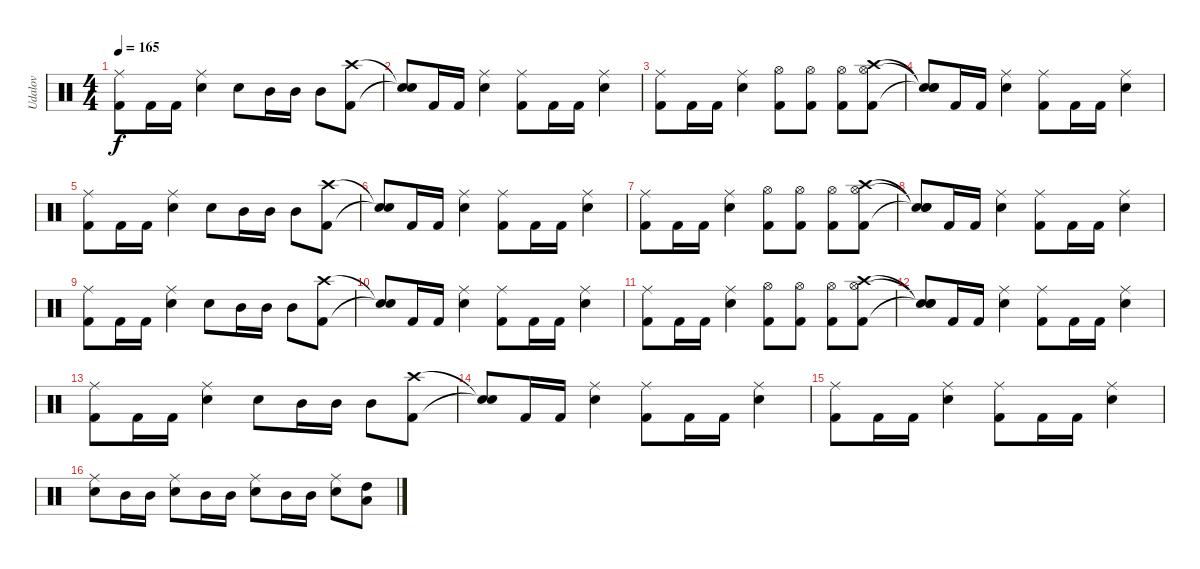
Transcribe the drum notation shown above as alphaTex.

\track ("Udalov" "Udalov") {instrument percussion}
\staff {score}
\articulation defaults
\ts (4 4)
\tempo 165
\clef neutral
\ks c
("Kick (hit) 2" "Ride (middle)").8{dy f} "Kick (hit) 2".16 "Kick (hit) 2".16 ("Snare (hit) 2" "Ride (middle)").4 "Snare (hit) 2".8 "Mid Tom (hit)".16 "Mid Tom (hit)".16 "Mid Tom (hit)".8 ("Kick (hit) 2" "Crash high (hit)").8 |
("Snare (hit)"{t} "Snare (hit)"{t}).8 "Kick (hit) 2".16 "Kick (hit) 2".16 ("Snare (hit) 2" "Ride (middle)").4 ("Kick (hit) 2" "Ride (middle)").8 "Kick (hit) 2".16 "Kick (hit) 2".16 ("Snare (hit) 2" "Ride (middle)").4 |
("Kick (hit) 2" "Ride (middle)").8 "Kick (hit) 2".16 "Kick (hit) 2".16 ("Snare (hit) 2" "Ride (middle)").4 ("Kick (hit) 2" "Hi-Hat (open)").8 ("Kick (hit) 2" "Hi-Hat (open)").8 ("Kick (hit) 2" "Hi-Hat (open)").8 ("Kick (hit) 2" "Hi-Hat (open)" "Crash high (hit)").8 |
("Snare (hit)"{t} "Snare (hit)"{t} "Snare (hit)"{t}).8 "Kick (hit) 2".16 "Kick (hit) 2".16 ("Snare (hit) 2" "Ride (middle)").4 ("Kick (hit) 2" "Ride (middle)").8 "Kick (hit) 2".16 "Kick (hit) 2".16 ("Snare (hit) 2" "Ride (middle)").4 |
("Kick (hit) 2" "Ride (middle)").8 "Kick (hit) 2".16 "Kick (hit) 2".16 ("Snare (hit) 2" "Ride (middle)").4 "Snare (hit) 2".8 "Mid Tom (hit)".16 "Mid Tom (hit)".16 "Mid Tom (hit)".8 ("Kick (hit) 2" "Crash high (hit)").8 |
("Snare (hit)"{t} "Snare (hit)"{t}).8 "Kick (hit) 2".16 "Kick (hit) 2".16 ("Snare (hit) 2" "Ride (middle)").4 ("Kick (hit) 2" "Ride (middle)").8 "Kick (hit) 2".16 "Kick (hit) 2".16 ("Snare (hit) 2" "Ride (middle)").4 |
("Kick (hit) 2" "Ride (middle)").8 "Kick (hit) 2".16 "Kick (hit) 2".16 ("Snare (hit) 2" "Ride (middle)").4 ("Kick (hit) 2" "Hi-Hat (open)").8 ("Kick (hit) 2" "Hi-Hat (open)").8 ("Kick (hit) 2" "Hi-Hat (open)").8 ("Kick (hit) 2" "Hi-Hat (open)" "Crash high (hit)").8 |
("Snare (hit)"{t} "Snare (hit)"{t} "Snare (hit)"{t}).8 "Kick (hit) 2".16 "Kick (hit) 2".16 ("Snare (hit) 2" "Ride (middle)").4 ("Kick (hit) 2" "Ride (middle)").8 "Kick (hit) 2".16 "Kick (hit) 2".16 ("Snare (hit) 2" "Ride (middle)").4 |
("Kick (hit) 2" "Ride (middle)").8 "Kick (hit) 2".16 "Kick (hit) 2".16 ("Snare (hit) 2" "Ride (middle)").4 "Snare (hit) 2".8 "Mid Tom (hit)".16 "Mid Tom (hit)".16 "Mid Tom (hit)".8 ("Kick (hit) 2" "Crash high (hit)").8 |
("Snare (hit)"{t} "Snare (hit)"{t}).8 "Kick (hit) 2".16 "Kick (hit) 2".16 ("Snare (hit) 2" "Ride (middle)").4 ("Kick (hit) 2" "Ride (middle)").8 "Kick (hit) 2".16 "Kick (hit) 2".16 ("Snare (hit) 2" "Ride (middle)").4 |
("Kick (hit) 2" "Ride (middle)").8 "Kick (hit) 2".16 "Kick (hit) 2".16 ("Snare (hit) 2" "Ride (middle)").4 ("Kick (hit) 2" "Hi-Hat (open)").8 ("Kick (hit) 2" "Hi-Hat (open)").8 ("Kick (hit) 2" "Hi-Hat (open)").8 ("Kick (hit) 2" "Hi-Hat (open)" "Crash high (hit)").8 |
("Snare (hit)"{t} "Snare (hit)"{t} "Snare (hit)"{t}).8 "Kick (hit) 2".16 "Kick (hit) 2".16 ("Snare (hit) 2" "Ride (middle)").4 ("Kick (hit) 2" "Ride (middle)").8 "Kick (hit) 2".16 "Kick (hit) 2".16 ("Snare (hit) 2" "Ride (middle)").4 |
("Kick (hit) 2" "Ride (middle)").8 "Kick (hit) 2".16 "Kick (hit) 2".16 ("Snare (hit) 2" "Ride (middle)").4 "Snare (hit) 2".8 "Mid Tom (hit)".16 "Mid Tom (hit)".16 "Mid Tom (hit)".8 ("Kick (hit) 2" "Crash high (hit)").8 |
("Snare (hit)"{t} "Snare (hit)"{t}).8 "Kick (hit) 2".16 "Kick (hit) 2".16 ("Snare (hit) 2" "Ride (middle)").4 ("Kick (hit) 2" "Ride (middle)").8 "Kick (hit) 2".16 "Kick (hit) 2".16 ("Snare (hit) 2" "Ride (middle)").4 |
("Kick (hit) 2" "Ride (middle)").8 "Kick (hit) 2".16 "Kick (hit) 2".16 ("Snare (hit) 2" "Ride (middle)").4 ("Kick (hit) 2" "Ride (middle)").8 "Kick (hit) 2".16 "Kick (hit) 2".16 ("Snare (hit) 2" "Ride (middle)").4 |
("Electric Snare (hit)" "Ride (middle)").8 "Mid Tom (hit)".16 "Mid Tom (hit)".16 ("Electric Snare (hit)" "Ride (middle)").8 "Mid Tom (hit)".16 "Mid Tom (hit)".16 ("Electric Snare (hit)" "Ride (middle)").8 "Mid Tom (hit)".16 "Mid Tom (hit)".16 ("Electric Snare (hit)" "Ride (middle)").8 ("High Tom (hit)" "Low Tom (hit)").8
